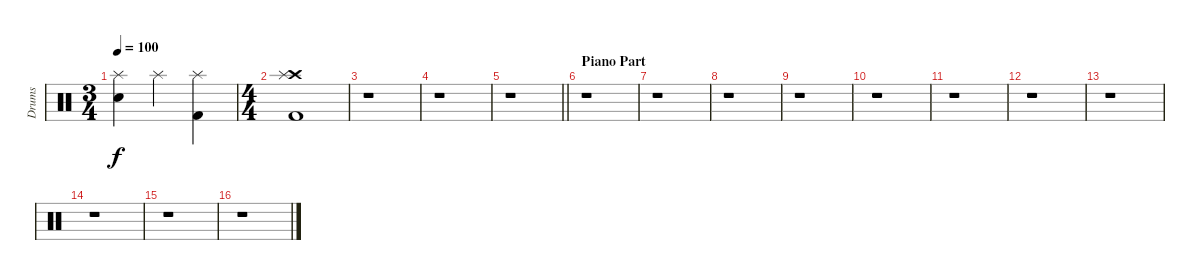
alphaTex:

\track ("Drums" "Drums") {instrument percussion}
\staff {score}
\articulation defaults
\ts (3 4)
\tempo 100
\clef neutral
\ks c
("Splash (hit)" "Electric Snare (hit)").4{dy f} "Splash (hit)".4 ("Splash (hit)" "Kick (hit) 2").4 |
\ts (4 4)
("Crash high (hit)" "Splash (hit)" "Kick (hit) 2").1 |
r.1 |
r.1 |
\barLineRight lightlight
r.1 |
\section ("" "Piano Part")
r.1 |
r.1 |
r.1 |
r.1 |
r.1 |
r.1 |
r.1 |
r.1 |
r.1 |
r.1 |
r.1
